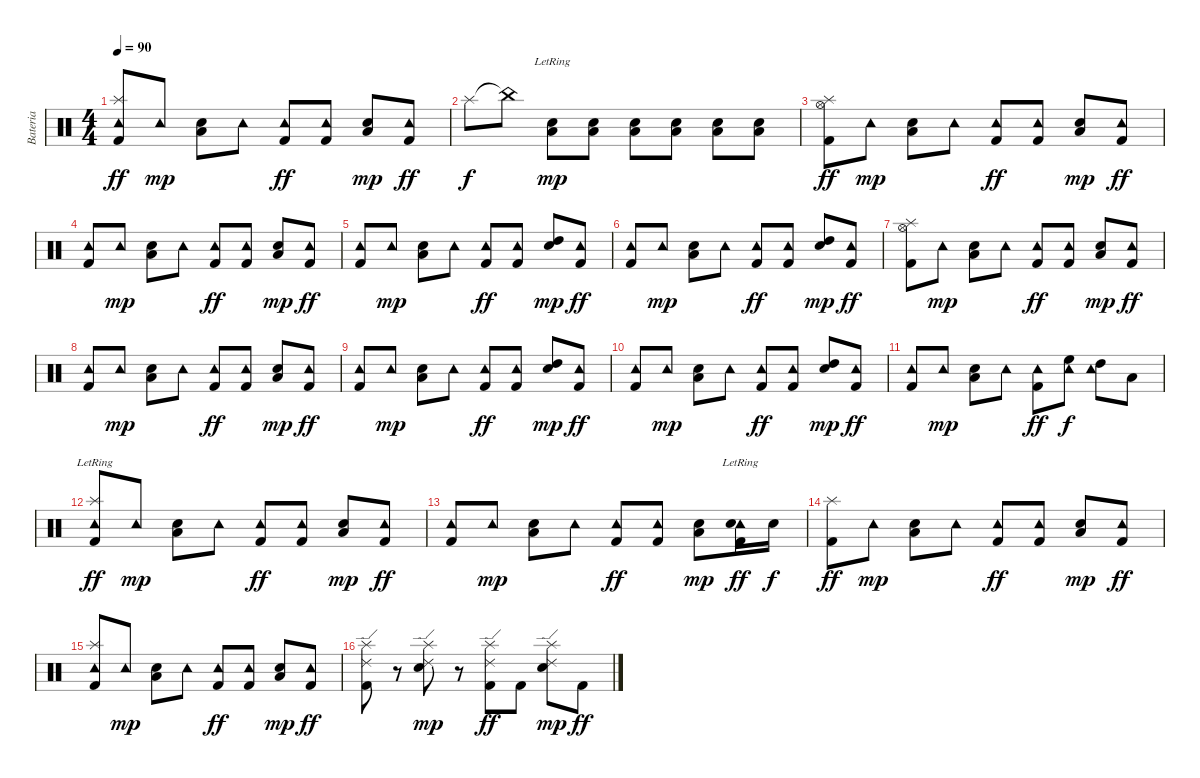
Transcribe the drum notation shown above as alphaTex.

\track ("Bateria" "Bateria") {instrument percussion}
\staff {score}
\articulation defaults
\ts (4 4)
\tempo 90
\clef neutral
\ks c
("Tambourine (hit)" "Splash (hit)" "Kick (hit) 2").8{dy ff} "Tambourine (hit)".8{dy mp} ("Low Tom (hit)" "Electric Snare (hit)").8 "Tambourine (hit)".8 ("Tambourine (hit)" "Kick (hit) 2").8{dy ff} ("Tambourine (hit)" "Kick (hit) 2").8 ("Low Tom (hit)" "Electric Snare (hit)").8{dy mp} ("Tambourine (hit)" "Kick (hit) 2").8{dy ff} |
"Splash (hit)".8{dy f} "China (hit)"{t}.8 ("Electric Snare (hit)"{lr} "Low Tom (hit)").8{dy mp} ("Electric Snare (hit)" "Low Tom (hit)").8 ("Electric Snare (hit)" "Low Tom (hit)").8 ("Electric Snare (hit)" "Low Tom (hit)").8 ("Electric Snare (hit)" "Low Tom (hit)").8 ("Electric Snare (hit)" "Low Tom (hit)").8 |
("Hi-Hat (open)" "Splash (hit)" "Kick (hit) 2").8{dy ff} "Tambourine (hit)".8{dy mp} ("Low Tom (hit)" "Electric Snare (hit)").8 "Tambourine (hit)".8 ("Tambourine (hit)" "Kick (hit) 2").8{dy ff} ("Tambourine (hit)" "Kick (hit) 2").8 ("Low Tom (hit)" "Electric Snare (hit)").8{dy mp} ("Tambourine (hit)" "Kick (hit) 2").8{dy ff} |
("Tambourine (hit)" "Kick (hit) 2").8 "Tambourine (hit)".8{dy mp} ("Low Tom (hit)" "Electric Snare (hit)").8 "Tambourine (hit)".8 ("Tambourine (hit)" "Kick (hit) 2").8{dy ff} ("Tambourine (hit)" "Kick (hit) 2").8 ("Low Tom (hit)" "Electric Snare (hit)").8{dy mp} ("Tambourine (hit)" "Kick (hit) 2").8{dy ff} |
("Tambourine (hit)" "Kick (hit) 2").8 "Tambourine (hit)".8{dy mp} ("Low Tom (hit)" "Electric Snare (hit)").8 "Tambourine (hit)".8 ("Tambourine (hit)" "Kick (hit) 2").8{dy ff} ("Tambourine (hit)" "Kick (hit) 2").8 ("High Tom (hit)" "Electric Snare (hit)").8{dy mp} ("Tambourine (hit)" "Kick (hit) 2").8{dy ff} |
("Tambourine (hit)" "Kick (hit) 2").8 "Tambourine (hit)".8{dy mp} ("Low Tom (hit)" "Electric Snare (hit)").8 "Tambourine (hit)".8 ("Tambourine (hit)" "Kick (hit) 2").8{dy ff} ("Tambourine (hit)" "Kick (hit) 2").8 ("High Tom (hit)" "Electric Snare (hit)").8{dy mp} ("Tambourine (hit)" "Kick (hit) 2").8{dy ff} |
("Hi-Hat (open)" "Splash (hit)" "Kick (hit) 2").8 "Tambourine (hit)".8{dy mp} ("Low Tom (hit)" "Electric Snare (hit)").8 "Tambourine (hit)".8 ("Tambourine (hit)" "Kick (hit) 2").8{dy ff} ("Tambourine (hit)" "Kick (hit) 2").8 ("Low Tom (hit)" "Electric Snare (hit)").8{dy mp} ("Tambourine (hit)" "Kick (hit) 2").8{dy ff} |
("Tambourine (hit)" "Kick (hit) 2").8 "Tambourine (hit)".8{dy mp} ("Low Tom (hit)" "Electric Snare (hit)").8 "Tambourine (hit)".8 ("Tambourine (hit)" "Kick (hit) 2").8{dy ff} ("Tambourine (hit)" "Kick (hit) 2").8 ("Low Tom (hit)" "Electric Snare (hit)").8{dy mp} ("Tambourine (hit)" "Kick (hit) 2").8{dy ff} |
("Tambourine (hit)" "Kick (hit) 2").8 "Tambourine (hit)".8{dy mp} ("Low Tom (hit)" "Electric Snare (hit)").8 "Tambourine (hit)".8 ("Tambourine (hit)" "Kick (hit) 2").8{dy ff} ("Tambourine (hit)" "Kick (hit) 2").8 ("High Tom (hit)" "Electric Snare (hit)").8{dy mp} ("Tambourine (hit)" "Kick (hit) 2").8{dy ff} |
("Tambourine (hit)" "Kick (hit) 2").8 "Tambourine (hit)".8{dy mp} ("Low Tom (hit)" "Electric Snare (hit)").8 "Tambourine (hit)".8 ("Tambourine (hit)" "Kick (hit) 2").8{dy ff} ("Tambourine (hit)" "Kick (hit) 2").8 ("High Tom (hit)" "Electric Snare (hit)").8{dy mp} ("Tambourine (hit)" "Kick (hit) 2").8{dy ff} |
("Tambourine (hit)" "Kick (hit) 2").8 "Tambourine (hit)".8{dy mp} ("Low Tom (hit)" "Electric Snare (hit)").8 "Tambourine (hit)".8 ("Tambourine (hit)" "Kick (hit) 2").8{dy ff} ("Tambourine (hit)" "High Floor Tom (hit)").8{dy f} ("Tambourine (hit)" "High Tom (hit)").8 "Low Tom (hit)".8 |
("Tambourine (hit)" "Splash (hit)"{lr} "Kick (hit) 2").8{dy ff} "Tambourine (hit)".8{dy mp} ("Low Tom (hit)" "Electric Snare (hit)").8 "Tambourine (hit)".8 ("Tambourine (hit)" "Kick (hit) 2").8{dy ff} ("Tambourine (hit)" "Kick (hit) 2").8 ("Low Tom (hit)" "Electric Snare (hit)").8{dy mp} ("Tambourine (hit)" "Kick (hit) 2").8{dy ff} |
("Tambourine (hit)" "Kick (hit) 2").8 "Tambourine (hit)".8{dy mp} ("Low Tom (hit)" "Electric Snare (hit)").8 "Tambourine (hit)".8 ("Tambourine (hit)" "Kick (hit) 2").8{dy ff} ("Tambourine (hit)" "Kick (hit) 2").8 ("Low Tom (hit)" "Electric Snare (hit)").8{dy mp} ("Tambourine (hit)"{lr} "Electric Snare (hit)" "Kick (hit) 2"{lr}).16{dy ff} "Electric Snare (hit)".16{dy f} |
("Splash (hit)" "Kick (hit) 2").8{dy ff} "Tambourine (hit)".8{dy mp} ("Low Tom (hit)" "Electric Snare (hit)").8 "Tambourine (hit)".8 ("Tambourine (hit)" "Kick (hit) 2").8{dy ff} ("Tambourine (hit)" "Kick (hit) 2").8 ("Low Tom (hit)" "Electric Snare (hit)").8{dy mp} ("Tambourine (hit)" "Kick (hit) 2").8{dy ff} |
("Tambourine (hit)" "Splash (hit)" "Kick (hit) 2").8 "Tambourine (hit)".8{dy mp} ("Low Tom (hit)" "Electric Snare (hit)").8 "Tambourine (hit)".8 ("Tambourine (hit)" "Kick (hit) 2").8{dy ff} ("Tambourine (hit)" "Kick (hit) 2").8 ("Low Tom (hit)" "Electric Snare (hit)").8{dy mp} ("Tambourine (hit)" "Kick (hit) 2").8{dy ff} |
("Splash (hit)" "Ride (edge) 2" "Kick (hit) 2").8 r.8 ("Splash (hit)" "Electric Snare (hit)" "Ride (edge) 2").8{dy mp} r.8 ("Splash (hit)" "Ride (edge) 2" "Kick (hit) 2").8{dy ff} "Kick (hit) 2".8 ("Splash (hit)" "Electric Snare (hit)" "Ride (edge) 2").8{dy mp} "Kick (hit) 2".8{dy ff}
